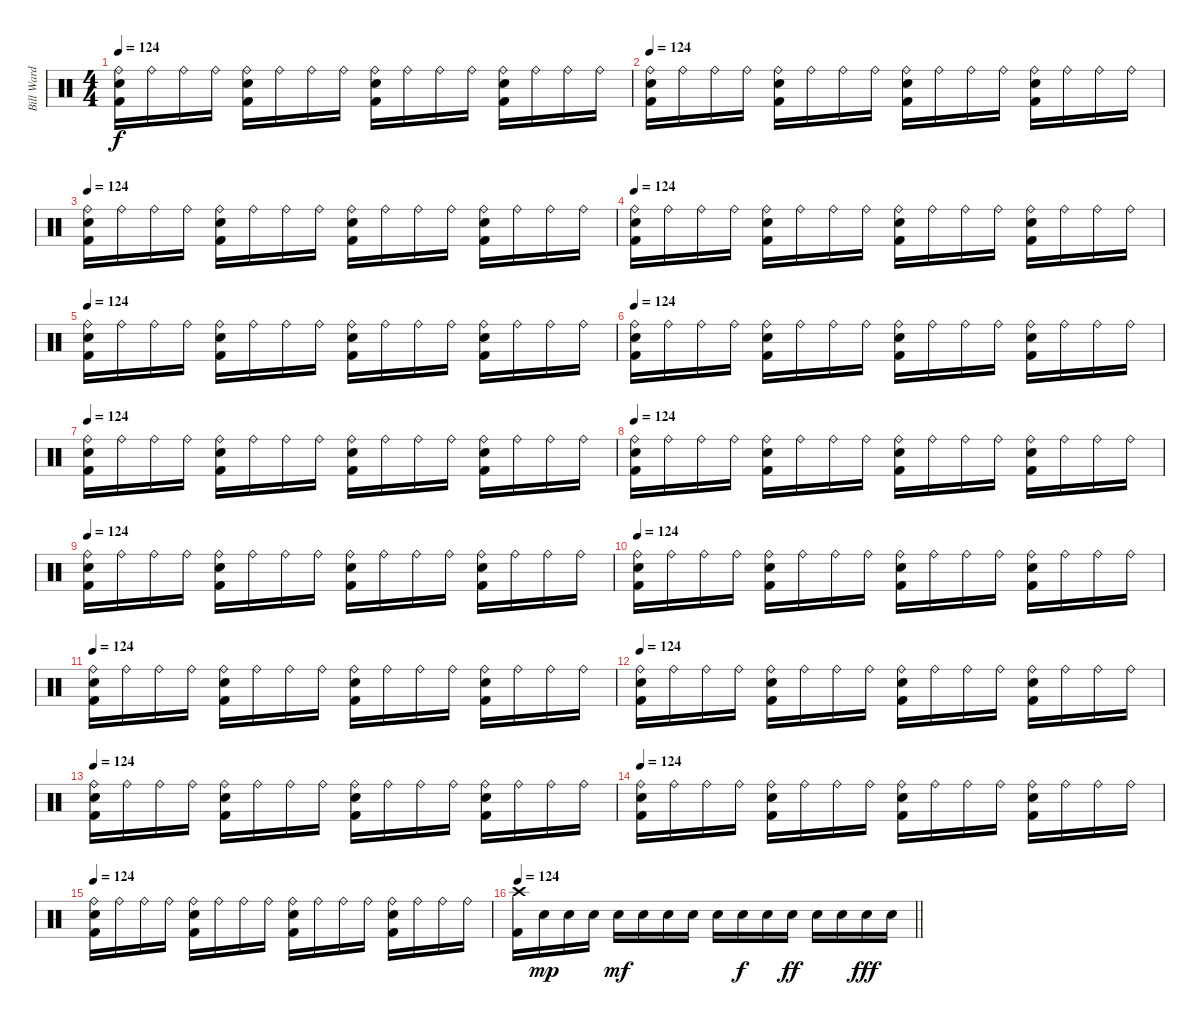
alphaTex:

\track ("Bill Ward" "Bill Ward") {instrument percussion}
\staff {score}
\articulation defaults
\ts (4 4)
\tempo 124
\clef neutral
\ks c
("Ride (bell)" "Snare (hit) 2" "Kick (hit) 2").16{dy f} "Ride (bell)".16 "Ride (bell)".16 "Ride (bell)".16 ("Ride (bell)" "Snare (hit) 2" "Kick (hit) 2").16 "Ride (bell)".16 "Ride (bell)".16 "Ride (bell)".16 ("Ride (bell)" "Snare (hit) 2" "Kick (hit) 2").16 "Ride (bell)".16 "Ride (bell)".16 "Ride (bell)".16 ("Ride (bell)" "Snare (hit) 2" "Kick (hit) 2").16 "Ride (bell)".16 "Ride (bell)".16 "Ride (bell)".16 |
\tempo 124
("Ride (bell)" "Snare (hit) 2" "Kick (hit) 2").16 "Ride (bell)".16 "Ride (bell)".16 "Ride (bell)".16 ("Ride (bell)" "Snare (hit) 2" "Kick (hit) 2").16 "Ride (bell)".16 "Ride (bell)".16 "Ride (bell)".16 ("Ride (bell)" "Snare (hit) 2" "Kick (hit) 2").16 "Ride (bell)".16 "Ride (bell)".16 "Ride (bell)".16 ("Ride (bell)" "Snare (hit) 2" "Kick (hit) 2").16 "Ride (bell)".16 "Ride (bell)".16 "Ride (bell)".16 |
\tempo 124
("Ride (bell)" "Snare (hit) 2" "Kick (hit) 2").16 "Ride (bell)".16 "Ride (bell)".16 "Ride (bell)".16 ("Ride (bell)" "Snare (hit) 2" "Kick (hit) 2").16 "Ride (bell)".16 "Ride (bell)".16 "Ride (bell)".16 ("Ride (bell)" "Snare (hit) 2" "Kick (hit) 2").16 "Ride (bell)".16 "Ride (bell)".16 "Ride (bell)".16 ("Ride (bell)" "Snare (hit) 2" "Kick (hit) 2").16 "Ride (bell)".16 "Ride (bell)".16 "Ride (bell)".16 |
\tempo 124
("Ride (bell)" "Snare (hit) 2" "Kick (hit) 2").16 "Ride (bell)".16 "Ride (bell)".16 "Ride (bell)".16 ("Ride (bell)" "Snare (hit) 2" "Kick (hit) 2").16 "Ride (bell)".16 "Ride (bell)".16 "Ride (bell)".16 ("Ride (bell)" "Snare (hit) 2" "Kick (hit) 2").16 "Ride (bell)".16 "Ride (bell)".16 "Ride (bell)".16 ("Ride (bell)" "Snare (hit) 2" "Kick (hit) 2").16 "Ride (bell)".16 "Ride (bell)".16 "Ride (bell)".16 |
\tempo 124
("Ride (bell)" "Snare (hit) 2" "Kick (hit) 2").16 "Ride (bell)".16 "Ride (bell)".16 "Ride (bell)".16 ("Ride (bell)" "Snare (hit) 2" "Kick (hit) 2").16 "Ride (bell)".16 "Ride (bell)".16 "Ride (bell)".16 ("Ride (bell)" "Snare (hit) 2" "Kick (hit) 2").16 "Ride (bell)".16 "Ride (bell)".16 "Ride (bell)".16 ("Ride (bell)" "Snare (hit) 2" "Kick (hit) 2").16 "Ride (bell)".16 "Ride (bell)".16 "Ride (bell)".16 |
\tempo 124
("Ride (bell)" "Snare (hit) 2" "Kick (hit) 2").16 "Ride (bell)".16 "Ride (bell)".16 "Ride (bell)".16 ("Ride (bell)" "Snare (hit) 2" "Kick (hit) 2").16 "Ride (bell)".16 "Ride (bell)".16 "Ride (bell)".16 ("Ride (bell)" "Snare (hit) 2" "Kick (hit) 2").16 "Ride (bell)".16 "Ride (bell)".16 "Ride (bell)".16 ("Ride (bell)" "Snare (hit) 2" "Kick (hit) 2").16 "Ride (bell)".16 "Ride (bell)".16 "Ride (bell)".16 |
\tempo 124
("Ride (bell)" "Snare (hit) 2" "Kick (hit) 2").16 "Ride (bell)".16 "Ride (bell)".16 "Ride (bell)".16 ("Ride (bell)" "Snare (hit) 2" "Kick (hit) 2").16 "Ride (bell)".16 "Ride (bell)".16 "Ride (bell)".16 ("Ride (bell)" "Snare (hit) 2" "Kick (hit) 2").16 "Ride (bell)".16 "Ride (bell)".16 "Ride (bell)".16 ("Ride (bell)" "Snare (hit) 2" "Kick (hit) 2").16 "Ride (bell)".16 "Ride (bell)".16 "Ride (bell)".16 |
\tempo 124
("Ride (bell)" "Snare (hit) 2" "Kick (hit) 2").16 "Ride (bell)".16 "Ride (bell)".16 "Ride (bell)".16 ("Ride (bell)" "Snare (hit) 2" "Kick (hit) 2").16 "Ride (bell)".16 "Ride (bell)".16 "Ride (bell)".16 ("Ride (bell)" "Snare (hit) 2" "Kick (hit) 2").16 "Ride (bell)".16 "Ride (bell)".16 "Ride (bell)".16 ("Ride (bell)" "Snare (hit) 2" "Kick (hit) 2").16 "Ride (bell)".16 "Ride (bell)".16 "Ride (bell)".16 |
\tempo 124
("Ride (bell)" "Snare (hit) 2" "Kick (hit) 2").16 "Ride (bell)".16 "Ride (bell)".16 "Ride (bell)".16 ("Ride (bell)" "Snare (hit) 2" "Kick (hit) 2").16 "Ride (bell)".16 "Ride (bell)".16 "Ride (bell)".16 ("Ride (bell)" "Snare (hit) 2" "Kick (hit) 2").16 "Ride (bell)".16 "Ride (bell)".16 "Ride (bell)".16 ("Ride (bell)" "Snare (hit) 2" "Kick (hit) 2").16 "Ride (bell)".16 "Ride (bell)".16 "Ride (bell)".16 |
\tempo 124
("Ride (bell)" "Snare (hit) 2" "Kick (hit) 2").16 "Ride (bell)".16 "Ride (bell)".16 "Ride (bell)".16 ("Ride (bell)" "Snare (hit) 2" "Kick (hit) 2").16 "Ride (bell)".16 "Ride (bell)".16 "Ride (bell)".16 ("Ride (bell)" "Snare (hit) 2" "Kick (hit) 2").16 "Ride (bell)".16 "Ride (bell)".16 "Ride (bell)".16 ("Ride (bell)" "Snare (hit) 2" "Kick (hit) 2").16 "Ride (bell)".16 "Ride (bell)".16 "Ride (bell)".16 |
\tempo 124
("Ride (bell)" "Snare (hit) 2" "Kick (hit) 2").16 "Ride (bell)".16 "Ride (bell)".16 "Ride (bell)".16 ("Ride (bell)" "Snare (hit) 2" "Kick (hit) 2").16 "Ride (bell)".16 "Ride (bell)".16 "Ride (bell)".16 ("Ride (bell)" "Snare (hit) 2" "Kick (hit) 2").16 "Ride (bell)".16 "Ride (bell)".16 "Ride (bell)".16 ("Ride (bell)" "Snare (hit) 2" "Kick (hit) 2").16 "Ride (bell)".16 "Ride (bell)".16 "Ride (bell)".16 |
\tempo 124
("Ride (bell)" "Snare (hit) 2" "Kick (hit) 2").16 "Ride (bell)".16 "Ride (bell)".16 "Ride (bell)".16 ("Ride (bell)" "Snare (hit) 2" "Kick (hit) 2").16 "Ride (bell)".16 "Ride (bell)".16 "Ride (bell)".16 ("Ride (bell)" "Snare (hit) 2" "Kick (hit) 2").16 "Ride (bell)".16 "Ride (bell)".16 "Ride (bell)".16 ("Ride (bell)" "Snare (hit) 2" "Kick (hit) 2").16 "Ride (bell)".16 "Ride (bell)".16 "Ride (bell)".16 |
\tempo 124
("Ride (bell)" "Snare (hit) 2" "Kick (hit) 2").16 "Ride (bell)".16 "Ride (bell)".16 "Ride (bell)".16 ("Ride (bell)" "Snare (hit) 2" "Kick (hit) 2").16 "Ride (bell)".16 "Ride (bell)".16 "Ride (bell)".16 ("Ride (bell)" "Snare (hit) 2" "Kick (hit) 2").16 "Ride (bell)".16 "Ride (bell)".16 "Ride (bell)".16 ("Ride (bell)" "Snare (hit) 2" "Kick (hit) 2").16 "Ride (bell)".16 "Ride (bell)".16 "Ride (bell)".16 |
\tempo 124
("Ride (bell)" "Snare (hit) 2" "Kick (hit) 2").16 "Ride (bell)".16 "Ride (bell)".16 "Ride (bell)".16 ("Ride (bell)" "Snare (hit) 2" "Kick (hit) 2").16 "Ride (bell)".16 "Ride (bell)".16 "Ride (bell)".16 ("Ride (bell)" "Snare (hit) 2" "Kick (hit) 2").16 "Ride (bell)".16 "Ride (bell)".16 "Ride (bell)".16 ("Ride (bell)" "Snare (hit) 2" "Kick (hit) 2").16 "Ride (bell)".16 "Ride (bell)".16 "Ride (bell)".16 |
\tempo 124
("Ride (bell)" "Snare (hit) 2" "Kick (hit) 2").16 "Ride (bell)".16 "Ride (bell)".16 "Ride (bell)".16 ("Ride (bell)" "Snare (hit) 2" "Kick (hit) 2").16 "Ride (bell)".16 "Ride (bell)".16 "Ride (bell)".16 ("Ride (bell)" "Snare (hit) 2" "Kick (hit) 2").16 "Ride (bell)".16 "Ride (bell)".16 "Ride (bell)".16 ("Ride (bell)" "Snare (hit) 2" "Kick (hit) 2").16 "Ride (bell)".16 "Ride (bell)".16 "Ride (bell)".16 |
\tempo 124
\barLineRight lightlight
("Crash high (hit)" "Kick (hit) 2").16 "Snare (hit) 2".16{dy mp} "Snare (hit) 2".16 "Snare (hit) 2".16 "Snare (hit) 2".16{dy mf} "Snare (hit) 2".16 "Snare (hit) 2".16 "Snare (hit) 2".16 "Snare (hit) 2".16 "Snare (hit) 2".16{dy f} "Snare (hit) 2".16 "Snare (hit) 2".16{dy ff} "Snare (hit) 2".16 "Snare (hit) 2".16 "Snare (hit) 2".16{dy fff} "Snare (hit) 2".16
